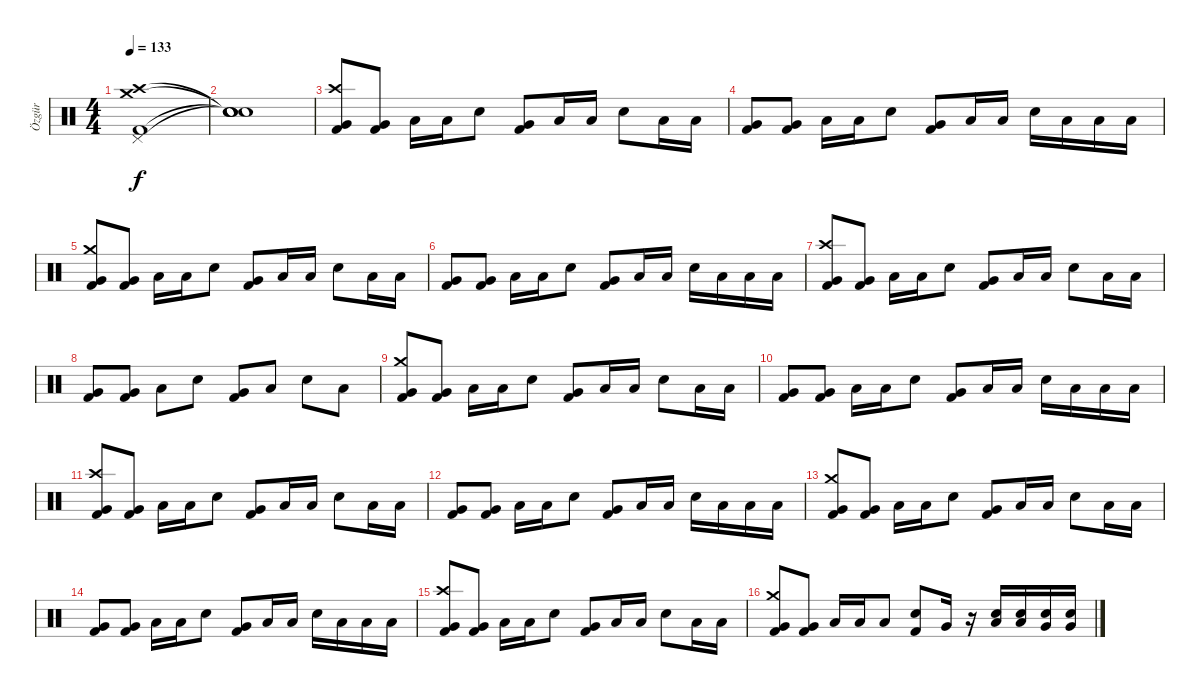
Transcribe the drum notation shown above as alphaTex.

\track ("Özgür" "Özgür") {instrument percussion}
\staff {score}
\articulation defaults
\ts (4 4)
\tempo 133
\clef neutral
\ks c
("Kick (hit) 2" "Pedal Hi-Hat (hit)" "Crash medium (hit)" "Crash high (hit)").1{dy f} |
("Snare (hit)"{t} "Snare (hit)"{t} "Snare (hit)"{t} "Snare (hit)"{t}).1 |
("Kick (hit) 2" "Very Low Tom (hit)" "Crash high (hit)").8 ("Kick (hit) 2" "Very Low Tom (hit)").8 "Low Tom (hit)".16 "Low Tom (hit)".16 "Electric Snare (hit)".8 ("Kick (hit) 2" "Very Low Tom (hit)").8 "Low Tom (hit)".16 "Low Tom (hit)".16 "Electric Snare (hit)".8 "Low Tom (hit)".16 "Low Tom (hit)".16 |
("Kick (hit) 2" "Very Low Tom (hit)").8 ("Kick (hit) 2" "Very Low Tom (hit)").8 "Low Tom (hit)".16 "Low Tom (hit)".16 "Electric Snare (hit)".8 ("Kick (hit) 2" "Very Low Tom (hit)").8 "Low Tom (hit)".16 "Low Tom (hit)".16 "Electric Snare (hit)".16 "Low Tom (hit)".16 "Low Tom (hit)".16 "Low Tom (hit)".16 |
("Kick (hit) 2" "Very Low Tom (hit)" "Crash medium (hit)").8 ("Kick (hit) 2" "Very Low Tom (hit)").8 "Low Tom (hit)".16 "Low Tom (hit)".16 "Electric Snare (hit)".8 ("Kick (hit) 2" "Very Low Tom (hit)").8 "Low Tom (hit)".16 "Low Tom (hit)".16 "Electric Snare (hit)".8 "Low Tom (hit)".16 "Low Tom (hit)".16 |
("Kick (hit) 2" "Very Low Tom (hit)").8 ("Kick (hit) 2" "Very Low Tom (hit)").8 "Low Tom (hit)".16 "Low Tom (hit)".16 "Electric Snare (hit)".8 ("Kick (hit) 2" "Very Low Tom (hit)").8 "Low Tom (hit)".16 "Low Tom (hit)".16 "Electric Snare (hit)".16 "Low Tom (hit)".16 "Low Tom (hit)".16 "Low Tom (hit)".16 |
("Kick (hit) 2" "Very Low Tom (hit)" "Crash high (hit)").8 ("Kick (hit) 2" "Very Low Tom (hit)").8 "Low Tom (hit)".16 "Low Tom (hit)".16 "Electric Snare (hit)".8 ("Kick (hit) 2" "Very Low Tom (hit)").8 "Low Tom (hit)".16 "Low Tom (hit)".16 "Electric Snare (hit)".8 "Low Tom (hit)".16 "Low Tom (hit)".16 |
("Kick (hit) 2" "Very Low Tom (hit)").8 ("Kick (hit) 2" "Very Low Tom (hit)").8 "Low Tom (hit)".8 "Electric Snare (hit)".8 ("Kick (hit) 2" "Very Low Tom (hit)").8 "Low Tom (hit)".8 "Electric Snare (hit)".8 "Low Tom (hit)".8 |
("Kick (hit) 2" "Very Low Tom (hit)" "Crash medium (hit)").8 ("Kick (hit) 2" "Very Low Tom (hit)").8 "Low Tom (hit)".16 "Low Tom (hit)".16 "Electric Snare (hit)".8 ("Kick (hit) 2" "Very Low Tom (hit)").8 "Low Tom (hit)".16 "Low Tom (hit)".16 "Electric Snare (hit)".8 "Low Tom (hit)".16 "Low Tom (hit)".16 |
("Kick (hit) 2" "Very Low Tom (hit)").8 ("Kick (hit) 2" "Very Low Tom (hit)").8 "Low Tom (hit)".16 "Low Tom (hit)".16 "Electric Snare (hit)".8 ("Kick (hit) 2" "Very Low Tom (hit)").8 "Low Tom (hit)".16 "Low Tom (hit)".16 "Electric Snare (hit)".16 "Low Tom (hit)".16 "Low Tom (hit)".16 "Low Tom (hit)".16 |
("Kick (hit) 2" "Very Low Tom (hit)" "Crash high (hit)").8 ("Kick (hit) 2" "Very Low Tom (hit)").8 "Low Tom (hit)".16 "Low Tom (hit)".16 "Electric Snare (hit)".8 ("Kick (hit) 2" "Very Low Tom (hit)").8 "Low Tom (hit)".16 "Low Tom (hit)".16 "Electric Snare (hit)".8 "Low Tom (hit)".16 "Low Tom (hit)".16 |
("Kick (hit) 2" "Very Low Tom (hit)").8 ("Kick (hit) 2" "Very Low Tom (hit)").8 "Low Tom (hit)".16 "Low Tom (hit)".16 "Electric Snare (hit)".8 ("Kick (hit) 2" "Very Low Tom (hit)").8 "Low Tom (hit)".16 "Low Tom (hit)".16 "Electric Snare (hit)".16 "Low Tom (hit)".16 "Low Tom (hit)".16 "Low Tom (hit)".16 |
("Kick (hit) 2" "Very Low Tom (hit)" "Crash medium (hit)").8 ("Kick (hit) 2" "Very Low Tom (hit)").8 "Low Tom (hit)".16 "Low Tom (hit)".16 "Electric Snare (hit)".8 ("Kick (hit) 2" "Very Low Tom (hit)").8 "Low Tom (hit)".16 "Low Tom (hit)".16 "Electric Snare (hit)".8 "Low Tom (hit)".16 "Low Tom (hit)".16 |
("Kick (hit) 2" "Very Low Tom (hit)").8 ("Kick (hit) 2" "Very Low Tom (hit)").8 "Low Tom (hit)".16 "Low Tom (hit)".16 "Electric Snare (hit)".8 ("Kick (hit) 2" "Very Low Tom (hit)").8 "Low Tom (hit)".16 "Low Tom (hit)".16 "Electric Snare (hit)".16 "Low Tom (hit)".16 "Low Tom (hit)".16 "Low Tom (hit)".16 |
("Kick (hit) 2" "Very Low Tom (hit)" "Crash high (hit)").8 ("Kick (hit) 2" "Very Low Tom (hit)").8 "Low Tom (hit)".16 "Low Tom (hit)".16 "Electric Snare (hit)".8 ("Kick (hit) 2" "Very Low Tom (hit)").8 "Low Tom (hit)".16 "Low Tom (hit)".16 "Electric Snare (hit)".8 "Low Tom (hit)".16 "Low Tom (hit)".16 |
("Kick (hit) 2" "Very Low Tom (hit)" "Crash medium (hit)").8 ("Kick (hit) 2" "Very Low Tom (hit)").8 "Low Tom (hit)".16 "Low Tom (hit)".16 "Low Tom (hit)".8 ("Kick (hit) 2" "Electric Snare (hit)").8 "Very Low Tom (hit)".16 r.16 ("Electric Snare (hit)" "Low Tom (hit)").16 ("Electric Snare (hit)" "Low Tom (hit)").16 ("Electric Snare (hit)" "Very Low Tom (hit)").16 ("Electric Snare (hit)" "Very Low Tom (hit)").16
